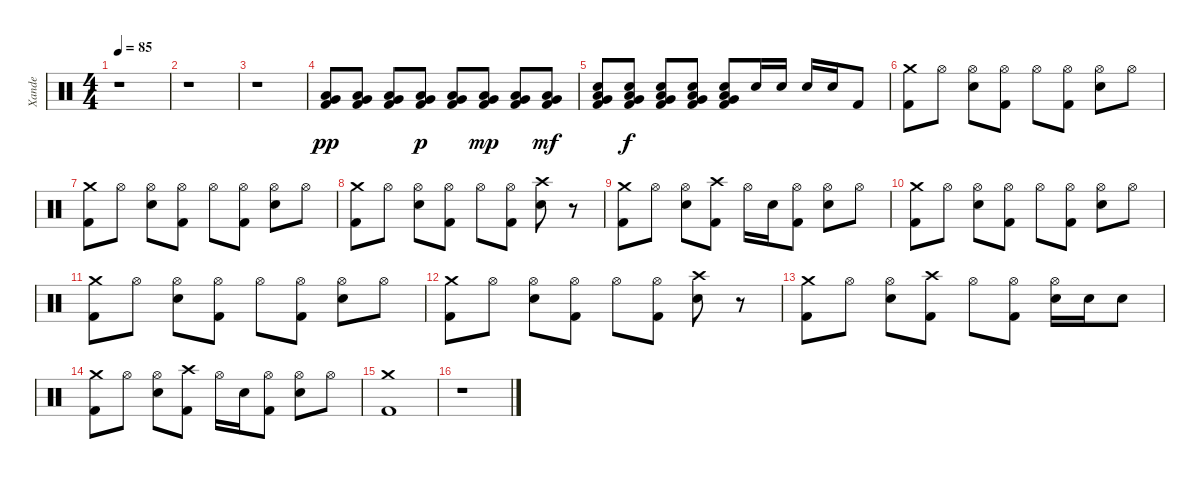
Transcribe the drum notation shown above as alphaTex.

\track ("Xande" "Xande") {instrument percussion}
\staff {score}
\articulation defaults
\ts (4 4)
\tempo 85
\clef neutral
\ks c
r.1{dy mf} |
r.1 |
r.1 |
("Very Low Tom (hit)" "Low Tom (hit)" "Kick (hit) 2").8{dy pp} ("Very Low Tom (hit)" "Low Tom (hit)" "Kick (hit) 2").8 ("Very Low Tom (hit)" "Low Tom (hit)" "Kick (hit) 2").8 ("Very Low Tom (hit)" "Low Tom (hit)" "Kick (hit) 2").8{dy p} ("Very Low Tom (hit)" "Low Tom (hit)" "Kick (hit) 2").8 ("Very Low Tom (hit)" "Low Tom (hit)" "Kick (hit) 2").8{dy mp} ("Very Low Tom (hit)" "Low Tom (hit)" "Kick (hit) 2").8 ("Very Low Tom (hit)" "Low Tom (hit)" "Kick (hit) 2").8{dy mf} |
("Very Low Tom (hit)" "Low Tom (hit)" "Electric Snare (hit)" "Kick (hit) 2").8 ("Very Low Tom (hit)" "Low Tom (hit)" "Electric Snare (hit)" "Kick (hit) 2").8{dy f} ("Very Low Tom (hit)" "Low Tom (hit)" "Electric Snare (hit)" "Kick (hit) 2").8 ("Very Low Tom (hit)" "Low Tom (hit)" "Electric Snare (hit)" "Kick (hit) 2").8 ("Very Low Tom (hit)" "Low Tom (hit)" "Electric Snare (hit)" "Kick (hit) 2").8 "Electric Snare (hit)".16 "Electric Snare (hit)".16 "Electric Snare (hit)".16 "Electric Snare (hit)".16 "Kick (hit) 2".8 |
("Crash medium (hit)" "Kick (hit) 2").8 "Hi-Hat (open)".8 ("Hi-Hat (open)" "Electric Snare (hit)").8 ("Hi-Hat (open)" "Kick (hit) 2").8 "Hi-Hat (open)".8 ("Hi-Hat (open)" "Kick (hit) 2").8 ("Hi-Hat (open)" "Electric Snare (hit)").8 "Hi-Hat (open)".8 |
("Crash medium (hit)" "Kick (hit) 2").8 "Hi-Hat (open)".8 ("Hi-Hat (open)" "Electric Snare (hit)").8 ("Hi-Hat (open)" "Kick (hit) 2").8 "Hi-Hat (open)".8 ("Hi-Hat (open)" "Kick (hit) 2").8 ("Hi-Hat (open)" "Electric Snare (hit)").8 "Hi-Hat (open)".8 |
("Crash medium (hit)" "Kick (hit) 2").8 "Hi-Hat (open)".8 ("Hi-Hat (open)" "Electric Snare (hit)").8 ("Hi-Hat (open)" "Kick (hit) 2").8 "Hi-Hat (open)".8 ("Hi-Hat (open)" "Kick (hit) 2").8 ("Crash high (hit)" "Electric Snare (hit)").8 r.8 |
("Crash medium (hit)" "Kick (hit) 2").8 "Hi-Hat (open)".8 ("Hi-Hat (open)" "Electric Snare (hit)").8 ("Crash high (hit)" "Kick (hit) 2").8 "Hi-Hat (open)".16 "Electric Snare (hit)".16 ("Hi-Hat (open)" "Kick (hit) 2").8 ("Hi-Hat (open)" "Electric Snare (hit)").8 "Hi-Hat (open)".8 |
("Crash medium (hit)" "Kick (hit) 2").8 "Hi-Hat (open)".8 ("Hi-Hat (open)" "Electric Snare (hit)").8 ("Hi-Hat (open)" "Kick (hit) 2").8 "Hi-Hat (open)".8 ("Hi-Hat (open)" "Kick (hit) 2").8 ("Hi-Hat (open)" "Electric Snare (hit)").8 "Hi-Hat (open)".8 |
("Crash medium (hit)" "Kick (hit) 2").8 "Hi-Hat (open)".8 ("Hi-Hat (open)" "Electric Snare (hit)").8 ("Hi-Hat (open)" "Kick (hit) 2").8 "Hi-Hat (open)".8 ("Hi-Hat (open)" "Kick (hit) 2").8 ("Hi-Hat (open)" "Electric Snare (hit)").8 "Hi-Hat (open)".8 |
("Crash medium (hit)" "Kick (hit) 2").8 "Hi-Hat (open)".8 ("Hi-Hat (open)" "Electric Snare (hit)").8 ("Hi-Hat (open)" "Kick (hit) 2").8 "Hi-Hat (open)".8 ("Hi-Hat (open)" "Kick (hit) 2").8 ("Crash high (hit)" "Electric Snare (hit)").8 r.8 |
("Crash medium (hit)" "Kick (hit) 2").8 "Hi-Hat (open)".8 ("Hi-Hat (open)" "Electric Snare (hit)").8 ("Crash high (hit)" "Kick (hit) 2").8 "Hi-Hat (open)".8 ("Hi-Hat (open)" "Kick (hit) 2").8 ("Hi-Hat (open)" "Electric Snare (hit)").16 "Electric Snare (hit)".16 "Electric Snare (hit)".8 |
("Crash medium (hit)" "Kick (hit) 2").8 "Hi-Hat (open)".8 ("Hi-Hat (open)" "Electric Snare (hit)").8 ("Crash high (hit)" "Kick (hit) 2").8 "Hi-Hat (open)".16 "Electric Snare (hit)".16 ("Hi-Hat (open)" "Kick (hit) 2").8 ("Hi-Hat (open)" "Electric Snare (hit)").8 "Hi-Hat (open)".8 |
("Crash medium (hit)" "Kick (hit) 2").1 |
r.1
